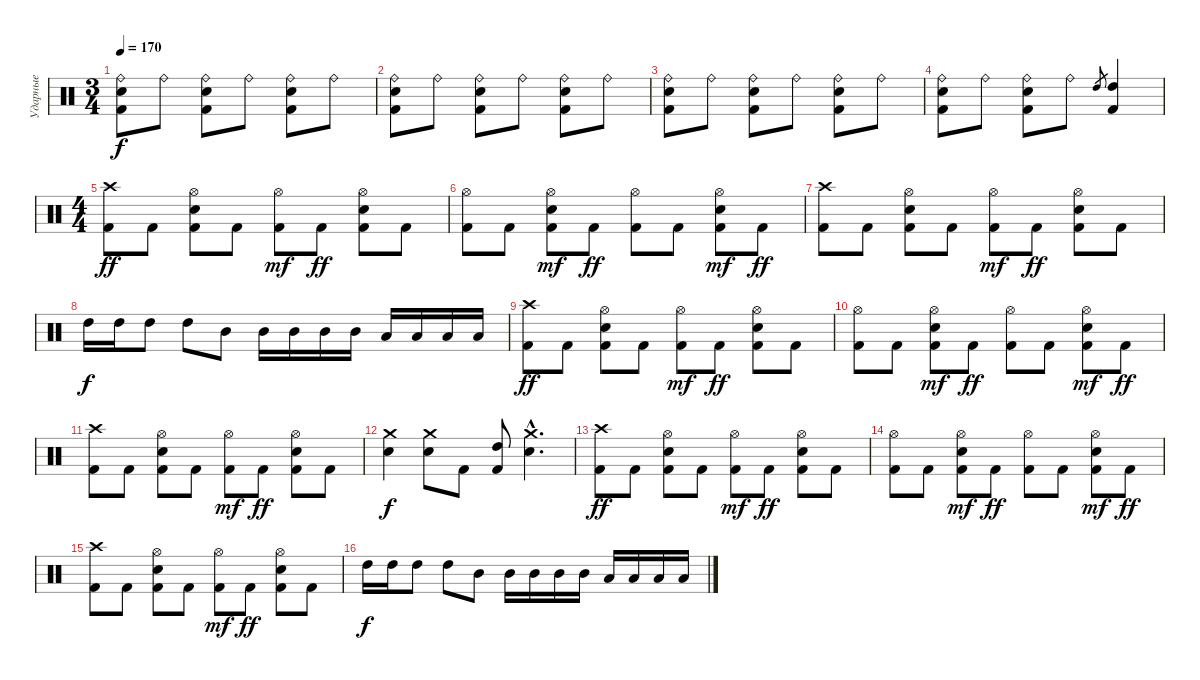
\track ("Ударные" "Ударные") {instrument percussion}
\staff {score}
\articulation defaults
\ts (3 4)
\tempo 170
\clef neutral
\ks c
("Ride (bell)" "Kick (hit) 2" "Electric Snare (hit)").8{dy f} "Ride (bell)".8 ("Ride (bell)" "Kick (hit) 2" "Electric Snare (hit)").8 "Ride (bell)".8 ("Ride (bell)" "Kick (hit) 2" "Electric Snare (hit)").8 "Ride (bell)".8 |
("Ride (bell)" "Kick (hit) 2" "Electric Snare (hit)").8 "Ride (bell)".8 ("Ride (bell)" "Kick (hit) 2" "Electric Snare (hit)").8 "Ride (bell)".8 ("Ride (bell)" "Kick (hit) 2" "Electric Snare (hit)").8 "Ride (bell)".8 |
("Ride (bell)" "Kick (hit) 2" "Electric Snare (hit)").8 "Ride (bell)".8 ("Ride (bell)" "Kick (hit) 2" "Electric Snare (hit)").8 "Ride (bell)".8 ("Ride (bell)" "Kick (hit) 2" "Electric Snare (hit)").8 "Ride (bell)".8 |
("Ride (bell)" "Kick (hit) 2" "Electric Snare (hit)").8 "Ride (bell)".8 ("Ride (bell)" "Kick (hit) 2" "Electric Snare (hit)").8 "Ride (bell)".8 "High Tom (hit)".8{gr} ("Kick (hit) 2" "High Tom (hit)").4 |
\ts (4 4)
("Crash high (hit)" "Kick (hit) 2").8{dy ff} "Kick (hit) 2".8 ("Hi-Hat (open)" "Kick (hit) 2" "Electric Snare (hit)").8 "Kick (hit) 2".8 ("Kick (hit) 2" "Hi-Hat (open)").8{dy mf} "Kick (hit) 2".8{dy ff} ("Kick (hit) 2" "Hi-Hat (open)" "Electric Snare (hit)").8 "Kick (hit) 2".8 |
("Hi-Hat (open)" "Kick (hit) 2").8 "Kick (hit) 2".8 ("Kick (hit) 2" "Electric Snare (hit)" "Hi-Hat (open)").8{dy mf} "Kick (hit) 2".8{dy ff} ("Hi-Hat (open)" "Kick (hit) 2").8 "Kick (hit) 2".8 ("Kick (hit) 2" "Electric Snare (hit)" "Hi-Hat (open)").8{dy mf} "Kick (hit) 2".8{dy ff} |
("Crash high (hit)" "Kick (hit) 2").8 "Kick (hit) 2".8 ("Hi-Hat (open)" "Kick (hit) 2" "Electric Snare (hit)").8 "Kick (hit) 2".8 ("Kick (hit) 2" "Hi-Hat (open)").8{dy mf} "Kick (hit) 2".8{dy ff} ("Kick (hit) 2" "Hi-Hat (open)" "Electric Snare (hit)").8 "Kick (hit) 2".8 |
"High Tom (hit)".16{dy f} "High Tom (hit)".16 "High Tom (hit)".8 "High Tom (hit)".8 "Mid Tom (hit)".8 "Mid Tom (hit)".16 "Mid Tom (hit)".16 "Mid Tom (hit)".16 "Mid Tom (hit)".16 "Low Tom (hit)".16 "Low Tom (hit)".16 "Low Tom (hit)".16 "Low Tom (hit)".16 |
("Crash high (hit)" "Kick (hit) 2").8{dy ff} "Kick (hit) 2".8 ("Hi-Hat (open)" "Kick (hit) 2" "Electric Snare (hit)").8 "Kick (hit) 2".8 ("Kick (hit) 2" "Hi-Hat (open)").8{dy mf} "Kick (hit) 2".8{dy ff} ("Kick (hit) 2" "Hi-Hat (open)" "Electric Snare (hit)").8 "Kick (hit) 2".8 |
("Hi-Hat (open)" "Kick (hit) 2").8 "Kick (hit) 2".8 ("Kick (hit) 2" "Electric Snare (hit)" "Hi-Hat (open)").8{dy mf} "Kick (hit) 2".8{dy ff} ("Hi-Hat (open)" "Kick (hit) 2").8 "Kick (hit) 2".8 ("Kick (hit) 2" "Electric Snare (hit)" "Hi-Hat (open)").8{dy mf} "Kick (hit) 2".8{dy ff} |
("Crash high (hit)" "Kick (hit) 2").8 "Kick (hit) 2".8 ("Hi-Hat (open)" "Kick (hit) 2" "Electric Snare (hit)").8 "Kick (hit) 2".8 ("Kick (hit) 2" "Hi-Hat (open)").8{dy mf} "Kick (hit) 2".8{dy ff} ("Kick (hit) 2" "Hi-Hat (open)" "Electric Snare (hit)").8 "Kick (hit) 2".8 |
("Electric Snare (hit)" "Crash medium (hit)").4{dy f} ("Electric Snare (hit)" "Crash medium (hit)").8 "Kick (hit) 2".8 ("High Tom (hit)" "Kick (hit) 2").8 ("Electric Snare (hit)"{hac} "Crash medium (hit)"{hac}).4{d} |
("Crash high (hit)" "Kick (hit) 2").8{dy ff} "Kick (hit) 2".8 ("Hi-Hat (open)" "Kick (hit) 2" "Electric Snare (hit)").8 "Kick (hit) 2".8 ("Kick (hit) 2" "Hi-Hat (open)").8{dy mf} "Kick (hit) 2".8{dy ff} ("Kick (hit) 2" "Hi-Hat (open)" "Electric Snare (hit)").8 "Kick (hit) 2".8 |
("Hi-Hat (open)" "Kick (hit) 2").8 "Kick (hit) 2".8 ("Kick (hit) 2" "Electric Snare (hit)" "Hi-Hat (open)").8{dy mf} "Kick (hit) 2".8{dy ff} ("Hi-Hat (open)" "Kick (hit) 2").8 "Kick (hit) 2".8 ("Kick (hit) 2" "Electric Snare (hit)" "Hi-Hat (open)").8{dy mf} "Kick (hit) 2".8{dy ff} |
("Crash high (hit)" "Kick (hit) 2").8 "Kick (hit) 2".8 ("Hi-Hat (open)" "Kick (hit) 2" "Electric Snare (hit)").8 "Kick (hit) 2".8 ("Kick (hit) 2" "Hi-Hat (open)").8{dy mf} "Kick (hit) 2".8{dy ff} ("Kick (hit) 2" "Hi-Hat (open)" "Electric Snare (hit)").8 "Kick (hit) 2".8 |
"High Tom (hit)".16{dy f} "High Tom (hit)".16 "High Tom (hit)".8 "High Tom (hit)".8 "Mid Tom (hit)".8 "Mid Tom (hit)".16 "Mid Tom (hit)".16 "Mid Tom (hit)".16 "Mid Tom (hit)".16 "Low Tom (hit)".16 "Low Tom (hit)".16 "Low Tom (hit)".16 "Low Tom (hit)".16
